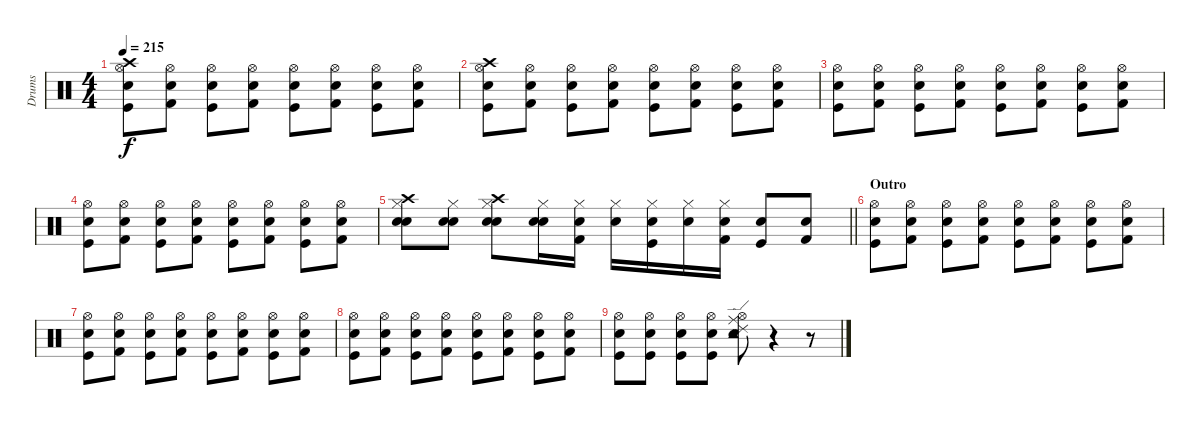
\track ("Drums" "Drums") {instrument percussion}
\staff {score}
\articulation defaults
\ts (4 4)
\tempo 215
\clef neutral
\ks c
("Crash high (hit)" "Hi-Hat (open)" "Snare (hit) 2" "Kick (hit)").8{dy f} ("Hi-Hat (open)" "Electric Snare (hit)" "Kick (hit) 2").8 ("Hi-Hat (open)" "Snare (hit) 2" "Kick (hit)").8 ("Hi-Hat (open)" "Electric Snare (hit)" "Kick (hit) 2").8 ("Hi-Hat (open)" "Snare (hit) 2" "Kick (hit)").8 ("Hi-Hat (open)" "Electric Snare (hit)" "Kick (hit) 2").8 ("Hi-Hat (open)" "Snare (hit) 2" "Kick (hit)").8 ("Hi-Hat (open)" "Electric Snare (hit)" "Kick (hit) 2").8 |
("Crash high (hit)" "Hi-Hat (open)" "Snare (hit) 2" "Kick (hit)").8 ("Hi-Hat (open)" "Electric Snare (hit)" "Kick (hit) 2").8 ("Hi-Hat (open)" "Snare (hit) 2" "Kick (hit)").8 ("Hi-Hat (open)" "Electric Snare (hit)" "Kick (hit) 2").8 ("Hi-Hat (open)" "Snare (hit) 2" "Kick (hit)").8 ("Hi-Hat (open)" "Electric Snare (hit)" "Kick (hit) 2").8 ("Hi-Hat (open)" "Snare (hit) 2" "Kick (hit)").8 ("Hi-Hat (open)" "Electric Snare (hit)" "Kick (hit) 2").8 |
("Hi-Hat (open)" "Snare (hit) 2" "Kick (hit)").8 ("Hi-Hat (open)" "Electric Snare (hit)" "Kick (hit) 2").8 ("Hi-Hat (open)" "Snare (hit) 2" "Kick (hit)").8 ("Hi-Hat (open)" "Electric Snare (hit)" "Kick (hit) 2").8 ("Hi-Hat (open)" "Snare (hit) 2" "Kick (hit)").8 ("Hi-Hat (open)" "Electric Snare (hit)" "Kick (hit) 2").8 ("Hi-Hat (open)" "Snare (hit) 2" "Kick (hit)").8 ("Hi-Hat (open)" "Electric Snare (hit)" "Kick (hit) 2").8 |
("Hi-Hat (open)" "Snare (hit) 2" "Kick (hit)").8 ("Hi-Hat (open)" "Electric Snare (hit)" "Kick (hit) 2").8 ("Hi-Hat (open)" "Snare (hit) 2" "Kick (hit)").8 ("Hi-Hat (open)" "Electric Snare (hit)" "Kick (hit) 2").8 ("Hi-Hat (open)" "Snare (hit) 2" "Kick (hit)").8 ("Hi-Hat (open)" "Electric Snare (hit)" "Kick (hit) 2").8 ("Hi-Hat (open)" "Snare (hit) 2" "Kick (hit)").8 ("Hi-Hat (open)" "Electric Snare (hit)" "Kick (hit) 2").8 |
\barLineRight lightlight
("Snare (hit) 2" "Electric Snare (hit)" "Crash high (hit)" "Hi-Hat (closed)").8 ("Snare (hit) 2" "Electric Snare (hit)" "Hi-Hat (closed)").8 ("Snare (hit) 2" "Electric Snare (hit)" "Crash high (hit)" "Hi-Hat (closed)").8 ("Snare (hit) 2" "Electric Snare (hit)" "Hi-Hat (closed)").16 ("Kick (hit) 2" "Electric Snare (hit)" "Hi-Hat (closed)").16 ("Snare (hit) 2" "Hi-Hat (closed)").16 ("Kick (hit)" "Electric Snare (hit)" "Hi-Hat (closed)").16 ("Snare (hit) 2" "Hi-Hat (closed)").16 ("Kick (hit) 2" "Electric Snare (hit)" "Hi-Hat (closed)").16 ("Snare (hit) 2" "Kick (hit)").8 ("Snare (hit) 2" "Kick (hit) 2").8 |
\section ("" "Outro")
("Hi-Hat (open)" "Snare (hit) 2" "Kick (hit)").8 ("Hi-Hat (open)" "Electric Snare (hit)" "Kick (hit) 2").8 ("Hi-Hat (open)" "Snare (hit) 2" "Kick (hit)").8 ("Hi-Hat (open)" "Electric Snare (hit)" "Kick (hit) 2").8 ("Hi-Hat (open)" "Snare (hit) 2" "Kick (hit)").8 ("Hi-Hat (open)" "Electric Snare (hit)" "Kick (hit) 2").8 ("Hi-Hat (open)" "Snare (hit) 2" "Kick (hit)").8 ("Hi-Hat (open)" "Electric Snare (hit)" "Kick (hit) 2").8 |
("Hi-Hat (open)" "Snare (hit) 2" "Kick (hit)").8 ("Hi-Hat (open)" "Electric Snare (hit)" "Kick (hit) 2").8 ("Hi-Hat (open)" "Snare (hit) 2" "Kick (hit)").8 ("Hi-Hat (open)" "Electric Snare (hit)" "Kick (hit) 2").8 ("Hi-Hat (open)" "Snare (hit) 2" "Kick (hit)").8 ("Hi-Hat (open)" "Electric Snare (hit)" "Kick (hit) 2").8 ("Hi-Hat (open)" "Snare (hit) 2" "Kick (hit)").8 ("Hi-Hat (open)" "Electric Snare (hit)" "Kick (hit) 2").8 |
("Hi-Hat (open)" "Snare (hit) 2" "Kick (hit)").8 ("Hi-Hat (open)" "Electric Snare (hit)" "Kick (hit) 2").8 ("Hi-Hat (open)" "Snare (hit) 2" "Kick (hit)").8 ("Hi-Hat (open)" "Electric Snare (hit)" "Kick (hit) 2").8 ("Hi-Hat (open)" "Snare (hit) 2" "Kick (hit)").8 ("Hi-Hat (open)" "Electric Snare (hit)" "Kick (hit) 2").8 ("Hi-Hat (open)" "Snare (hit) 2" "Kick (hit)").8 ("Hi-Hat (open)" "Electric Snare (hit)" "Kick (hit) 2").8 |
("Hi-Hat (open)" "Snare (hit) 2" "Kick (hit)").8 ("Hi-Hat (open)" "Snare (hit) 2" "Kick (hit)").8 ("Hi-Hat (open)" "Snare (hit) 2" "Kick (hit)").8 ("Hi-Hat (open)" "Snare (hit) 2" "Kick (hit)").8 ("Ride (edge) 2" "Tambourine (hit)" "Hi-Hat (open)" "Tambourine (hit)" "Ride (middle)" "Snare (hit) 2").8 r.4 r.8
